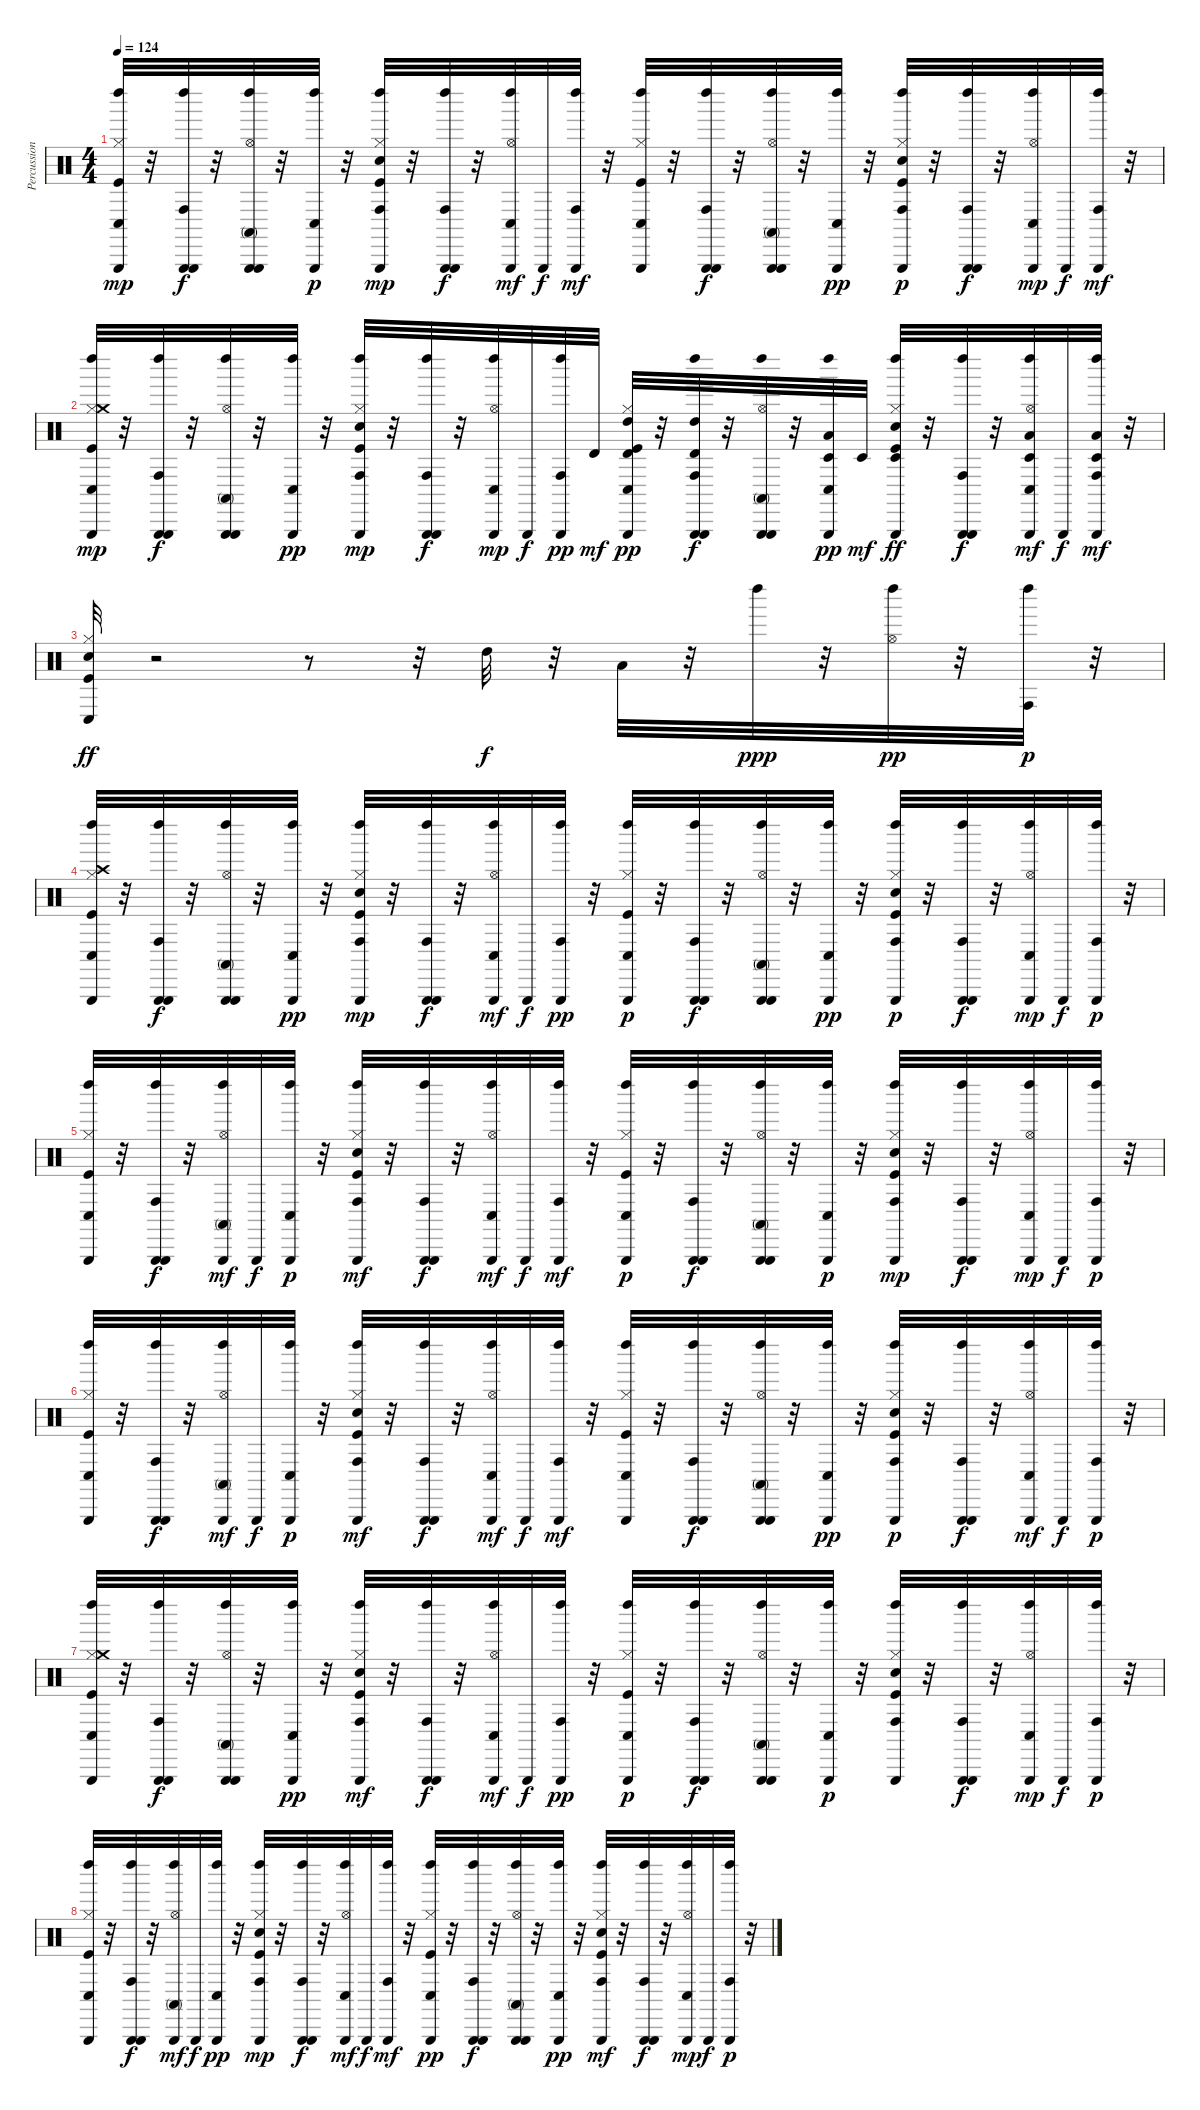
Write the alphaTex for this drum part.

\track ("Percussion" "Percussion") {instrument percussion}
\staff {score}
\articulation defaults
\ts (4 4)
\tempo 124
\clef neutral
\ks c
("Triangle (hit)" "Kick (hit)" "Hi-Hat (closed)" "Conga low (hit)" "Left Maraca (hit)").32{dy mp} r.32 ("Triangle (hit)" "Conga high (hit)" "Left Maraca (hit)" "Triangle (hit)").32{dy f} r.32 ("Triangle (hit)" "Hi-Hat (open)" "Left Maraca (hit)" "Conga high (mute)" "Triangle (hit)").32 r.32 ("Triangle (hit)" "Left Maraca (hit)" "Conga low (hit)").32{dy p} r.32 ("Hi-Hat (closed)" "Triangle (hit)" "Kick (hit)" "Snare (hit) 2" "Conga high (hit)" "Left Maraca (hit)").32{dy mp} r.32 ("Conga high (hit)" "Triangle (hit)" "Left Maraca (hit)" "Triangle (hit)").32{dy f} r.32 ("Triangle (hit)" "Conga low (hit)" "Hi-Hat (open)" "Left Maraca (hit)").32{dy mf} "Triangle (hit)".32{dy f} ("Triangle (hit)" "Left Maraca (hit)" "Conga high (hit)").32{dy mf} r.32 ("Triangle (hit)" "Conga low (hit)" "Left Maraca (hit)" "Kick (hit)" "Hi-Hat (closed)").32 r.32 ("Triangle (hit)" "Conga high (hit)" "Left Maraca (hit)" "Triangle (hit)").32{dy f} r.32 ("Triangle (hit)" "Hi-Hat (open)" "Conga high (mute)" "Left Maraca (hit)" "Triangle (hit)").32 r.32 ("Conga low (hit)" "Triangle (hit)" "Left Maraca (hit)").32{dy pp} r.32 ("Triangle (hit)" "Conga high (hit)" "Kick (hit)" "Snare (hit) 2" "Hi-Hat (closed)" "Left Maraca (hit)").32{dy p} r.32 ("Triangle (hit)" "Conga high (hit)" "Left Maraca (hit)" "Triangle (hit)").32{dy f} r.32 ("Left Maraca (hit)" "Triangle (hit)" "Hi-Hat (open)" "Conga low (hit)").32{dy mp} "Triangle (hit)".32{dy f} ("Triangle (hit)" "Left Maraca (hit)" "Conga high (hit)").32{dy mf} r.32 |
("Triangle (hit)" "Kick (hit)" "Hi-Hat (closed)" "Crash medium (hit)" "Conga low (hit)" "Left Maraca (hit)").32{dy mp} r.32 ("Triangle (hit)" "Conga high (hit)" "Left Maraca (hit)" "Triangle (hit)").32{dy f} r.32 ("Hi-Hat (open)" "Triangle (hit)" "Conga high (mute)" "Left Maraca (hit)" "Triangle (hit)").32 r.32 ("Conga low (hit)" "Triangle (hit)" "Left Maraca (hit)").32{dy pp} r.32 ("Triangle (hit)" "Hi-Hat (closed)" "Kick (hit)" "Snare (hit) 2" "Conga high (hit)" "Left Maraca (hit)").32{dy mp} r.32 ("Triangle (hit)" "Conga high (hit)" "Left Maraca (hit)" "Triangle (hit)").32{dy f} r.32 ("Left Maraca (hit)" "Triangle (hit)" "Conga low (hit)" "Hi-Hat (open)").32{dy mp} "Triangle (hit)".32{dy f} ("Triangle (hit)" "Conga high (hit)" "Left Maraca (hit)").32{dy pp} "Timbale high (hit)".32{dy mf} ("High Tom (hit)" "Triangle (hit)" "Kick (hit)" "Hi-Hat (closed)" "Conga low (hit)" "Timbale high (hit)").32{dy pp} r.32 ("High Tom (hit)" "Triangle (hit)" "Conga high (hit)" "Timbale high (hit)" "Left Maraca (hit)" "Triangle (hit)").32{dy f} r.32 ("Triangle (hit)" "Hi-Hat (open)" "Left Maraca (hit)" "Conga high (mute)" "Triangle (hit)").32 r.32 ("Triangle (hit)" "Conga low (hit)" "Timbale low (hit)" "Low Tom (hit)" "Left Maraca (hit)").32{dy pp} "Timbale low (hit)".32{dy mf} ("Hi-Hat (closed)" "Left Maraca (hit)" "Triangle (hit)" "Kick (hit)" "Snare (hit) 2" "Timbale low (hit)").32{dy ff} r.32 ("Triangle (hit)" "Left Maraca (hit)" "Conga high (hit)" "Triangle (hit)").32{dy f} r.32 ("Triangle (hit)" "Low Tom (hit)" "Hi-Hat (open)" "Conga low (hit)" "Left Maraca (hit)" "Timbale low (hit)").32{dy mf} "Triangle (hit)".32{dy f} ("Triangle (hit)" "Conga high (hit)" "Low Tom (hit)" "Left Maraca (hit)" "Timbale low (hit)").32{dy mf} r.32 |
("Hi-Hat (closed)" "Conga low (hit)" "Kick (hit)" "Snare (hit) 2").32{dy ff} r.2 r.8 r.32 "High Tom (hit)".32{dy f} r.32 "Low Tom (hit)".32 r.32 "Left Maraca (hit)".32{dy ppp} r.32 ("Hi-Hat (open)" "Left Maraca (hit)").32{dy pp} r.32 ("Conga high (hit)" "Left Maraca (hit)").32{dy p} r.32 |
("Triangle (hit)" "Left Maraca (hit)" "Kick (hit)" "Hi-Hat (closed)" "Crash high (hit)" "Conga low (hit)").32 r.32 ("Triangle (hit)" "Conga high (hit)" "Left Maraca (hit)" "Triangle (hit)").32{dy f} r.32 ("Conga high (mute)" "Triangle (hit)" "Hi-Hat (open)" "Left Maraca (hit)" "Triangle (hit)").32 r.32 ("Triangle (hit)" "Conga low (hit)" "Left Maraca (hit)").32{dy pp} r.32 ("Hi-Hat (closed)" "Triangle (hit)" "Kick (hit)" "Snare (hit) 2" "Conga high (hit)" "Left Maraca (hit)").32{dy mp} r.32 ("Triangle (hit)" "Conga high (hit)" "Left Maraca (hit)" "Triangle (hit)").32{dy f} r.32 ("Triangle (hit)" "Left Maraca (hit)" "Hi-Hat (open)" "Conga low (hit)").32{dy mf} "Triangle (hit)".32{dy f} ("Triangle (hit)" "Conga high (hit)" "Left Maraca (hit)").32{dy pp} r.32 ("Triangle (hit)" "Kick (hit)" "Hi-Hat (closed)" "Conga low (hit)" "Left Maraca (hit)").32{dy p} r.32 ("Conga high (hit)" "Triangle (hit)" "Left Maraca (hit)" "Triangle (hit)").32{dy f} r.32 ("Triangle (hit)" "Hi-Hat (open)" "Conga high (mute)" "Left Maraca (hit)" "Triangle (hit)").32 r.32 ("Triangle (hit)" "Conga low (hit)" "Left Maraca (hit)").32{dy pp} r.32 ("Hi-Hat (closed)" "Triangle (hit)" "Kick (hit)" "Snare (hit) 2" "Conga high (hit)" "Left Maraca (hit)").32{dy p} r.32 ("Triangle (hit)" "Left Maraca (hit)" "Conga high (hit)" "Triangle (hit)").32{dy f} r.32 ("Conga low (hit)" "Left Maraca (hit)" "Triangle (hit)" "Hi-Hat (open)").32{dy mp} "Triangle (hit)".32{dy f} ("Triangle (hit)" "Conga high (hit)" "Left Maraca (hit)").32{dy p} r.32 |
("Triangle (hit)" "Left Maraca (hit)" "Kick (hit)" "Hi-Hat (closed)" "Conga low (hit)").32 r.32 ("Triangle (hit)" "Left Maraca (hit)" "Conga high (hit)" "Triangle (hit)").32{dy f} r.32 ("Triangle (hit)" "Hi-Hat (open)" "Conga high (mute)" "Left Maraca (hit)").32{dy mf} "Triangle (hit)".32{dy f} ("Left Maraca (hit)" "Triangle (hit)" "Conga low (hit)").32{dy p} r.32 ("Triangle (hit)" "Kick (hit)" "Snare (hit) 2" "Conga high (hit)" "Left Maraca (hit)" "Hi-Hat (closed)").32{dy mf} r.32 ("Left Maraca (hit)" "Triangle (hit)" "Conga high (hit)" "Triangle (hit)").32{dy f} r.32 ("Hi-Hat (open)" "Triangle (hit)" "Conga low (hit)" "Left Maraca (hit)").32{dy mf} "Triangle (hit)".32{dy f} ("Left Maraca (hit)" "Triangle (hit)" "Conga high (hit)").32{dy mf} r.32 ("Hi-Hat (closed)" "Left Maraca (hit)" "Triangle (hit)" "Kick (hit)" "Conga low (hit)").32{dy p} r.32 ("Conga high (hit)" "Left Maraca (hit)" "Triangle (hit)" "Triangle (hit)").32{dy f} r.32 ("Triangle (hit)" "Conga high (mute)" "Hi-Hat (open)" "Left Maraca (hit)" "Triangle (hit)").32 r.32 ("Conga low (hit)" "Left Maraca (hit)" "Triangle (hit)").32{dy p} r.32 ("Left Maraca (hit)" "Triangle (hit)" "Kick (hit)" "Snare (hit) 2" "Hi-Hat (closed)" "Conga high (hit)").32{dy mp} r.32 ("Conga high (hit)" "Triangle (hit)" "Left Maraca (hit)" "Triangle (hit)").32{dy f} r.32 ("Triangle (hit)" "Hi-Hat (open)" "Left Maraca (hit)" "Conga low (hit)").32{dy mp} "Triangle (hit)".32{dy f} ("Triangle (hit)" "Conga high (hit)" "Left Maraca (hit)").32{dy p} r.32 |
("Hi-Hat (closed)" "Triangle (hit)" "Kick (hit)" "Left Maraca (hit)" "Conga low (hit)").32 r.32 ("Triangle (hit)" "Conga high (hit)" "Left Maraca (hit)" "Triangle (hit)").32{dy f} r.32 ("Triangle (hit)" "Hi-Hat (open)" "Left Maraca (hit)" "Conga high (mute)").32{dy mf} "Triangle (hit)".32{dy f} ("Triangle (hit)" "Left Maraca (hit)" "Conga low (hit)").32{dy p} r.32 ("Triangle (hit)" "Conga high (hit)" "Kick (hit)" "Snare (hit) 2" "Left Maraca (hit)" "Hi-Hat (closed)").32{dy mf} r.32 ("Triangle (hit)" "Conga high (hit)" "Left Maraca (hit)" "Triangle (hit)").32{dy f} r.32 ("Conga low (hit)" "Triangle (hit)" "Hi-Hat (open)" "Left Maraca (hit)").32{dy mf} "Triangle (hit)".32{dy f} ("Triangle (hit)" "Left Maraca (hit)" "Conga high (hit)").32{dy mf} r.32 ("Triangle (hit)" "Conga low (hit)" "Left Maraca (hit)" "Kick (hit)" "Hi-Hat (closed)").32 r.32 ("Triangle (hit)" "Conga high (hit)" "Left Maraca (hit)" "Triangle (hit)").32{dy f} r.32 ("Triangle (hit)" "Conga high (mute)" "Hi-Hat (open)" "Left Maraca (hit)" "Triangle (hit)").32 r.32 ("Triangle (hit)" "Conga low (hit)" "Left Maraca (hit)").32{dy pp} r.32 ("Triangle (hit)" "Kick (hit)" "Snare (hit) 2" "Hi-Hat (closed)" "Conga high (hit)" "Left Maraca (hit)").32{dy p} r.32 ("Conga high (hit)" "Triangle (hit)" "Left Maraca (hit)" "Triangle (hit)").32{dy f} r.32 ("Triangle (hit)" "Hi-Hat (open)" "Left Maraca (hit)" "Conga low (hit)").32{dy mf} "Triangle (hit)".32{dy f} ("Triangle (hit)" "Conga high (hit)" "Left Maraca (hit)").32{dy p} r.32 |
("Triangle (hit)" "Kick (hit)" "Hi-Hat (closed)" "Crash medium (hit)" "Left Maraca (hit)" "Conga low (hit)").32 r.32 ("Triangle (hit)" "Left Maraca (hit)" "Conga high (hit)" "Triangle (hit)").32{dy f} r.32 ("Triangle (hit)" "Hi-Hat (open)" "Left Maraca (hit)" "Conga high (mute)" "Triangle (hit)").32 r.32 ("Triangle (hit)" "Conga low (hit)" "Left Maraca (hit)").32{dy pp} r.32 ("Conga high (hit)" "Triangle (hit)" "Kick (hit)" "Snare (hit) 2" "Left Maraca (hit)" "Hi-Hat (closed)").32{dy mf} r.32 ("Left Maraca (hit)" "Triangle (hit)" "Conga high (hit)" "Triangle (hit)").32{dy f} r.32 ("Triangle (hit)" "Hi-Hat (open)" "Conga low (hit)" "Left Maraca (hit)").32{dy mf} "Triangle (hit)".32{dy f} ("Conga high (hit)" "Triangle (hit)" "Left Maraca (hit)").32{dy pp} r.32 ("Hi-Hat (closed)" "Conga low (hit)" "Triangle (hit)" "Kick (hit)" "Left Maraca (hit)").32{dy p} r.32 ("Triangle (hit)" "Left Maraca (hit)" "Conga high (hit)" "Triangle (hit)").32{dy f} r.32 ("Triangle (hit)" "Hi-Hat (open)" "Conga high (mute)" "Left Maraca (hit)" "Triangle (hit)").32 r.32 ("Triangle (hit)" "Left Maraca (hit)" "Conga low (hit)").32{dy p} r.32 ("Triangle (hit)" "Kick (hit)" "Snare (hit) 2" "Conga high (hit)" "Hi-Hat (closed)" "Left Maraca (hit)").32 r.32 ("Left Maraca (hit)" "Triangle (hit)" "Conga high (hit)" "Triangle (hit)").32{dy f} r.32 ("Triangle (hit)" "Conga low (hit)" "Left Maraca (hit)" "Hi-Hat (open)").32{dy mp} "Triangle (hit)".32{dy f} ("Triangle (hit)" "Conga high (hit)" "Left Maraca (hit)").32{dy p} r.32 |
("Triangle (hit)" "Left Maraca (hit)" "Kick (hit)" "Hi-Hat (closed)" "Conga low (hit)").32 r.32 ("Triangle (hit)" "Conga high (hit)" "Left Maraca (hit)" "Triangle (hit)").32{dy f} r.32 ("Triangle (hit)" "Hi-Hat (open)" "Conga high (mute)" "Left Maraca (hit)").32{dy mf} "Triangle (hit)".32{dy f} ("Conga low (hit)" "Triangle (hit)" "Left Maraca (hit)").32{dy pp} r.32 ("Triangle (hit)" "Kick (hit)" "Snare (hit) 2" "Hi-Hat (closed)" "Conga high (hit)" "Left Maraca (hit)").32{dy mp} r.32 ("Triangle (hit)" "Conga high (hit)" "Left Maraca (hit)" "Triangle (hit)").32{dy f} r.32 ("Triangle (hit)" "Hi-Hat (open)" "Conga low (hit)" "Left Maraca (hit)").32{dy mf} "Triangle (hit)".32{dy f} ("Left Maraca (hit)" "Triangle (hit)" "Conga high (hit)").32{dy mf} r.32 ("Hi-Hat (closed)" "Triangle (hit)" "Kick (hit)" "Left Maraca (hit)" "Conga low (hit)").32{dy pp} r.32 ("Conga high (hit)" "Triangle (hit)" "Left Maraca (hit)" "Triangle (hit)").32{dy f} r.32 ("Hi-Hat (open)" "Triangle (hit)" "Conga high (mute)" "Left Maraca (hit)" "Triangle (hit)").32 r.32 ("Triangle (hit)" "Conga low (hit)" "Left Maraca (hit)").32{dy pp} r.32 ("Hi-Hat (closed)" "Triangle (hit)" "Kick (hit)" "Snare (hit) 2" "Left Maraca (hit)" "Conga high (hit)").32{dy mf} r.32 ("Triangle (hit)" "Conga high (hit)" "Left Maraca (hit)" "Triangle (hit)").32{dy f} r.32 ("Hi-Hat (open)" "Conga low (hit)" "Triangle (hit)" "Left Maraca (hit)").32{dy mp} "Triangle (hit)".32{dy f} ("Triangle (hit)" "Conga high (hit)" "Left Maraca (hit)").32{dy p} r.32
